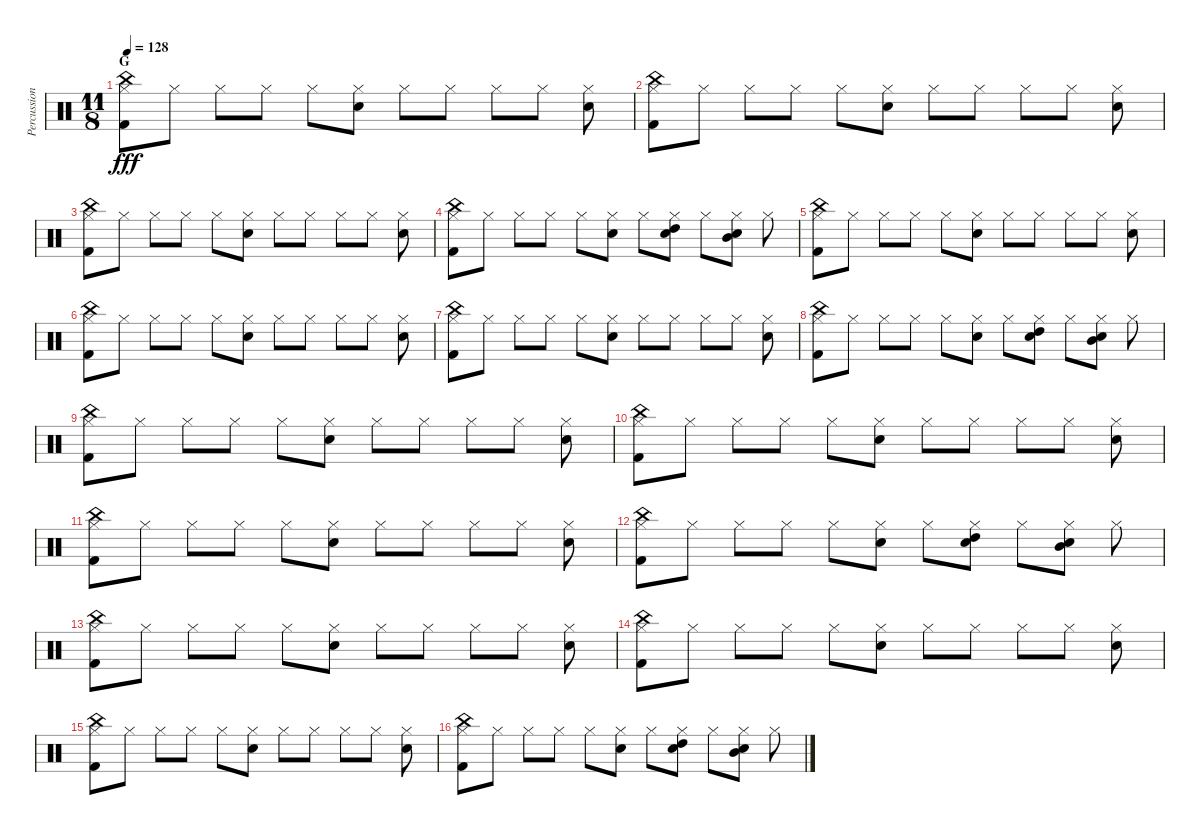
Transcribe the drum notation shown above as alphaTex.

\track ("Percussions" "Percussion") {instrument percussion}
\staff {score}
\articulation defaults
\ts (11 8)
\section ("" "G")
\tempo 128
\clef neutral
\ks c
("Hi-Hat (closed)" "China (hit)" "Kick (hit) 2").8{dy fff} "Hi-Hat (closed)".8 "Hi-Hat (closed)".8 "Hi-Hat (closed)".8 "Hi-Hat (closed)".8 ("Hi-Hat (closed)" "Electric Snare (hit)").8 "Hi-Hat (closed)".8 "Hi-Hat (closed)".8 "Hi-Hat (closed)".8 "Hi-Hat (closed)".8 ("Hi-Hat (closed)" "Electric Snare (hit)").8 |
("Hi-Hat (closed)" "China (hit)" "Kick (hit) 2").8 "Hi-Hat (closed)".8 "Hi-Hat (closed)".8 "Hi-Hat (closed)".8 "Hi-Hat (closed)".8 ("Hi-Hat (closed)" "Electric Snare (hit)").8 "Hi-Hat (closed)".8 "Hi-Hat (closed)".8 "Hi-Hat (closed)".8 "Hi-Hat (closed)".8 ("Hi-Hat (closed)" "Electric Snare (hit)").8 |
("Hi-Hat (closed)" "China (hit)" "Kick (hit) 2").8 "Hi-Hat (closed)".8 "Hi-Hat (closed)".8 "Hi-Hat (closed)".8 "Hi-Hat (closed)".8 ("Hi-Hat (closed)" "Electric Snare (hit)").8 "Hi-Hat (closed)".8 "Hi-Hat (closed)".8 "Hi-Hat (closed)".8 "Hi-Hat (closed)".8 ("Hi-Hat (closed)" "Electric Snare (hit)").8 |
("Hi-Hat (closed)" "China (hit)" "Kick (hit) 2").8 "Hi-Hat (closed)".8 "Hi-Hat (closed)".8 "Hi-Hat (closed)".8 "Hi-Hat (closed)".8 ("Hi-Hat (closed)" "Electric Snare (hit)").8 "Hi-Hat (closed)".8 ("Hi-Hat (closed)" "High Tom (hit)" "Electric Snare (hit)").8 "Hi-Hat (closed)".8 ("Hi-Hat (closed)" "Mid Tom (hit)" "Electric Snare (hit)").8 "Hi-Hat (closed)".8 |
("Hi-Hat (closed)" "China (hit)" "Kick (hit) 2").8 "Hi-Hat (closed)".8 "Hi-Hat (closed)".8 "Hi-Hat (closed)".8 "Hi-Hat (closed)".8 ("Hi-Hat (closed)" "Electric Snare (hit)").8 "Hi-Hat (closed)".8 "Hi-Hat (closed)".8 "Hi-Hat (closed)".8 "Hi-Hat (closed)".8 ("Hi-Hat (closed)" "Electric Snare (hit)").8 |
("Hi-Hat (closed)" "China (hit)" "Kick (hit) 2").8 "Hi-Hat (closed)".8 "Hi-Hat (closed)".8 "Hi-Hat (closed)".8 "Hi-Hat (closed)".8 ("Hi-Hat (closed)" "Electric Snare (hit)").8 "Hi-Hat (closed)".8 "Hi-Hat (closed)".8 "Hi-Hat (closed)".8 "Hi-Hat (closed)".8 ("Hi-Hat (closed)" "Electric Snare (hit)").8 |
("Hi-Hat (closed)" "China (hit)" "Kick (hit) 2").8 "Hi-Hat (closed)".8 "Hi-Hat (closed)".8 "Hi-Hat (closed)".8 "Hi-Hat (closed)".8 ("Hi-Hat (closed)" "Electric Snare (hit)").8 "Hi-Hat (closed)".8 "Hi-Hat (closed)".8 "Hi-Hat (closed)".8 "Hi-Hat (closed)".8 ("Hi-Hat (closed)" "Electric Snare (hit)").8 |
("Hi-Hat (closed)" "China (hit)" "Kick (hit) 2").8 "Hi-Hat (closed)".8 "Hi-Hat (closed)".8 "Hi-Hat (closed)".8 "Hi-Hat (closed)".8 ("Hi-Hat (closed)" "Electric Snare (hit)").8 "Hi-Hat (closed)".8 ("Hi-Hat (closed)" "High Tom (hit)" "Electric Snare (hit)").8 "Hi-Hat (closed)".8 ("Hi-Hat (closed)" "Mid Tom (hit)" "Electric Snare (hit)").8 "Hi-Hat (closed)".8 |
("Hi-Hat (closed)" "China (hit)" "Kick (hit) 2").8 "Hi-Hat (closed)".8 "Hi-Hat (closed)".8 "Hi-Hat (closed)".8 "Hi-Hat (closed)".8 ("Hi-Hat (closed)" "Electric Snare (hit)").8 "Hi-Hat (closed)".8 "Hi-Hat (closed)".8 "Hi-Hat (closed)".8 "Hi-Hat (closed)".8 ("Hi-Hat (closed)" "Electric Snare (hit)").8 |
("Hi-Hat (closed)" "China (hit)" "Kick (hit) 2").8 "Hi-Hat (closed)".8 "Hi-Hat (closed)".8 "Hi-Hat (closed)".8 "Hi-Hat (closed)".8 ("Hi-Hat (closed)" "Electric Snare (hit)").8 "Hi-Hat (closed)".8 "Hi-Hat (closed)".8 "Hi-Hat (closed)".8 "Hi-Hat (closed)".8 ("Hi-Hat (closed)" "Electric Snare (hit)").8 |
("Hi-Hat (closed)" "China (hit)" "Kick (hit) 2").8 "Hi-Hat (closed)".8 "Hi-Hat (closed)".8 "Hi-Hat (closed)".8 "Hi-Hat (closed)".8 ("Hi-Hat (closed)" "Electric Snare (hit)").8 "Hi-Hat (closed)".8 "Hi-Hat (closed)".8 "Hi-Hat (closed)".8 "Hi-Hat (closed)".8 ("Hi-Hat (closed)" "Electric Snare (hit)").8 |
("Hi-Hat (closed)" "China (hit)" "Kick (hit) 2").8 "Hi-Hat (closed)".8 "Hi-Hat (closed)".8 "Hi-Hat (closed)".8 "Hi-Hat (closed)".8 ("Hi-Hat (closed)" "Electric Snare (hit)").8 "Hi-Hat (closed)".8 ("Hi-Hat (closed)" "High Tom (hit)" "Electric Snare (hit)").8 "Hi-Hat (closed)".8 ("Hi-Hat (closed)" "Mid Tom (hit)" "Electric Snare (hit)").8 "Hi-Hat (closed)".8 |
("Hi-Hat (closed)" "China (hit)" "Kick (hit) 2").8 "Hi-Hat (closed)".8 "Hi-Hat (closed)".8 "Hi-Hat (closed)".8 "Hi-Hat (closed)".8 ("Hi-Hat (closed)" "Electric Snare (hit)").8 "Hi-Hat (closed)".8 "Hi-Hat (closed)".8 "Hi-Hat (closed)".8 "Hi-Hat (closed)".8 ("Hi-Hat (closed)" "Electric Snare (hit)").8 |
("Hi-Hat (closed)" "China (hit)" "Kick (hit) 2").8 "Hi-Hat (closed)".8 "Hi-Hat (closed)".8 "Hi-Hat (closed)".8 "Hi-Hat (closed)".8 ("Hi-Hat (closed)" "Electric Snare (hit)").8 "Hi-Hat (closed)".8 "Hi-Hat (closed)".8 "Hi-Hat (closed)".8 "Hi-Hat (closed)".8 ("Hi-Hat (closed)" "Electric Snare (hit)").8 |
("Hi-Hat (closed)" "China (hit)" "Kick (hit) 2").8 "Hi-Hat (closed)".8 "Hi-Hat (closed)".8 "Hi-Hat (closed)".8 "Hi-Hat (closed)".8 ("Hi-Hat (closed)" "Electric Snare (hit)").8 "Hi-Hat (closed)".8 "Hi-Hat (closed)".8 "Hi-Hat (closed)".8 "Hi-Hat (closed)".8 ("Hi-Hat (closed)" "Electric Snare (hit)").8 |
("Hi-Hat (closed)" "China (hit)" "Kick (hit) 2").8 "Hi-Hat (closed)".8 "Hi-Hat (closed)".8 "Hi-Hat (closed)".8 "Hi-Hat (closed)".8 ("Hi-Hat (closed)" "Electric Snare (hit)").8 "Hi-Hat (closed)".8 ("Hi-Hat (closed)" "High Tom (hit)" "Electric Snare (hit)").8 "Hi-Hat (closed)".8 ("Hi-Hat (closed)" "Mid Tom (hit)" "Electric Snare (hit)").8 "Hi-Hat (closed)".8
